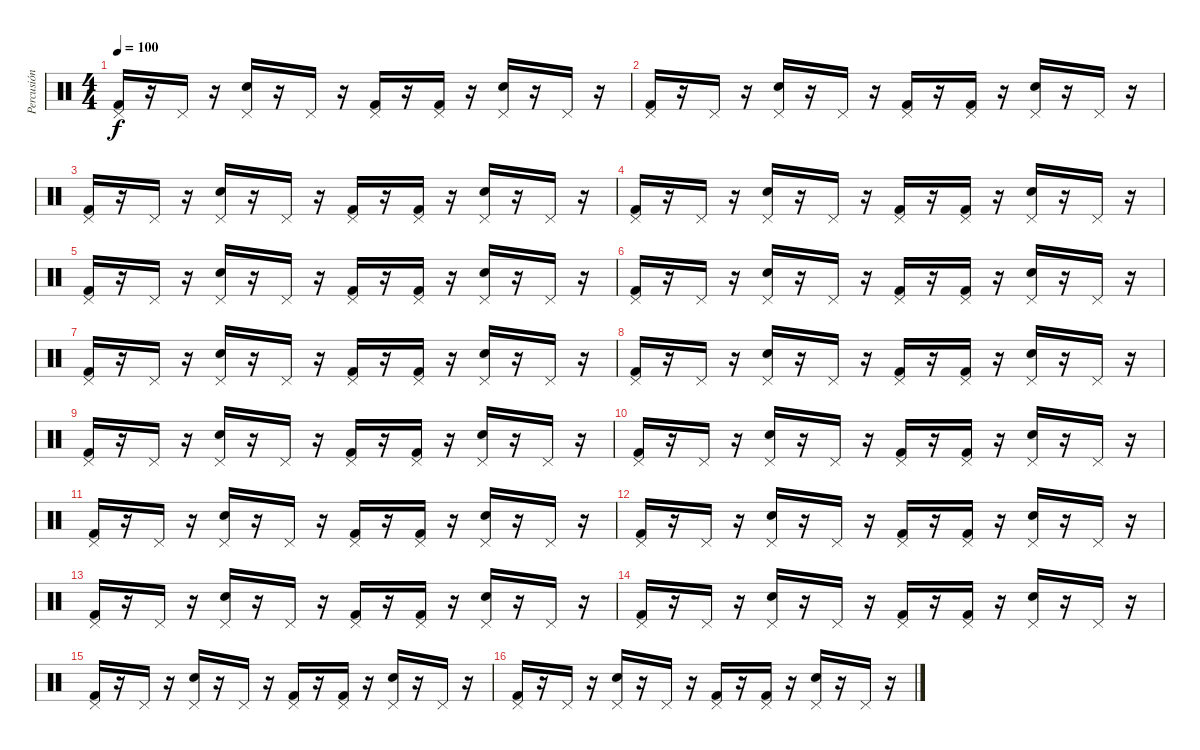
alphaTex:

\track ("Percusión" "Percusión") {instrument percussion}
\staff {score}
\articulation defaults
\ts (4 4)
\tempo 100
\clef neutral
\ks c
("Pedal Hi-Hat (hit)" "Kick (hit) 2").16{dy f} r.16 "Pedal Hi-Hat (hit)".16 r.16 ("Pedal Hi-Hat (hit)" "Snare (hit) 2").16 r.16 "Pedal Hi-Hat (hit)".16 r.16 ("Pedal Hi-Hat (hit)" "Kick (hit) 2").16 r.16 ("Pedal Hi-Hat (hit)" "Kick (hit) 2").16 r.16 ("Pedal Hi-Hat (hit)" "Snare (hit) 2").16 r.16 "Pedal Hi-Hat (hit)".16 r.16 |
("Pedal Hi-Hat (hit)" "Kick (hit) 2").16 r.16 "Pedal Hi-Hat (hit)".16 r.16 ("Pedal Hi-Hat (hit)" "Snare (hit) 2").16 r.16 "Pedal Hi-Hat (hit)".16 r.16 ("Pedal Hi-Hat (hit)" "Kick (hit) 2").16 r.16 ("Pedal Hi-Hat (hit)" "Kick (hit) 2").16 r.16 ("Pedal Hi-Hat (hit)" "Snare (hit) 2").16 r.16 "Pedal Hi-Hat (hit)".16 r.16 |
("Pedal Hi-Hat (hit)" "Kick (hit) 2").16 r.16 "Pedal Hi-Hat (hit)".16 r.16 ("Pedal Hi-Hat (hit)" "Snare (hit) 2").16 r.16 "Pedal Hi-Hat (hit)".16 r.16 ("Pedal Hi-Hat (hit)" "Kick (hit) 2").16 r.16 ("Pedal Hi-Hat (hit)" "Kick (hit) 2").16 r.16 ("Pedal Hi-Hat (hit)" "Snare (hit) 2").16 r.16 "Pedal Hi-Hat (hit)".16 r.16 |
("Pedal Hi-Hat (hit)" "Kick (hit) 2").16 r.16 "Pedal Hi-Hat (hit)".16 r.16 ("Pedal Hi-Hat (hit)" "Snare (hit) 2").16 r.16 "Pedal Hi-Hat (hit)".16 r.16 ("Pedal Hi-Hat (hit)" "Kick (hit) 2").16 r.16 ("Pedal Hi-Hat (hit)" "Kick (hit) 2").16 r.16 ("Pedal Hi-Hat (hit)" "Snare (hit) 2").16 r.16 "Pedal Hi-Hat (hit)".16 r.16 |
("Pedal Hi-Hat (hit)" "Kick (hit) 2").16 r.16 "Pedal Hi-Hat (hit)".16 r.16 ("Pedal Hi-Hat (hit)" "Snare (hit) 2").16 r.16 "Pedal Hi-Hat (hit)".16 r.16 ("Pedal Hi-Hat (hit)" "Kick (hit) 2").16 r.16 ("Pedal Hi-Hat (hit)" "Kick (hit) 2").16 r.16 ("Pedal Hi-Hat (hit)" "Snare (hit) 2").16 r.16 "Pedal Hi-Hat (hit)".16 r.16 |
("Pedal Hi-Hat (hit)" "Kick (hit) 2").16 r.16 "Pedal Hi-Hat (hit)".16 r.16 ("Pedal Hi-Hat (hit)" "Snare (hit) 2").16 r.16 "Pedal Hi-Hat (hit)".16 r.16 ("Pedal Hi-Hat (hit)" "Kick (hit) 2").16 r.16 ("Pedal Hi-Hat (hit)" "Kick (hit) 2").16 r.16 ("Pedal Hi-Hat (hit)" "Snare (hit) 2").16 r.16 "Pedal Hi-Hat (hit)".16 r.16 |
("Pedal Hi-Hat (hit)" "Kick (hit) 2").16 r.16 "Pedal Hi-Hat (hit)".16 r.16 ("Pedal Hi-Hat (hit)" "Snare (hit) 2").16 r.16 "Pedal Hi-Hat (hit)".16 r.16 ("Pedal Hi-Hat (hit)" "Kick (hit) 2").16 r.16 ("Pedal Hi-Hat (hit)" "Kick (hit) 2").16 r.16 ("Pedal Hi-Hat (hit)" "Snare (hit) 2").16 r.16 "Pedal Hi-Hat (hit)".16 r.16 |
("Pedal Hi-Hat (hit)" "Kick (hit) 2").16 r.16 "Pedal Hi-Hat (hit)".16 r.16 ("Pedal Hi-Hat (hit)" "Snare (hit) 2").16 r.16 "Pedal Hi-Hat (hit)".16 r.16 ("Pedal Hi-Hat (hit)" "Kick (hit) 2").16 r.16 ("Pedal Hi-Hat (hit)" "Kick (hit) 2").16 r.16 ("Pedal Hi-Hat (hit)" "Snare (hit) 2").16 r.16 "Pedal Hi-Hat (hit)".16 r.16 |
("Pedal Hi-Hat (hit)" "Kick (hit) 2").16 r.16 "Pedal Hi-Hat (hit)".16 r.16 ("Pedal Hi-Hat (hit)" "Snare (hit) 2").16 r.16 "Pedal Hi-Hat (hit)".16 r.16 ("Pedal Hi-Hat (hit)" "Kick (hit) 2").16 r.16 ("Pedal Hi-Hat (hit)" "Kick (hit) 2").16 r.16 ("Pedal Hi-Hat (hit)" "Snare (hit) 2").16 r.16 "Pedal Hi-Hat (hit)".16 r.16 |
("Pedal Hi-Hat (hit)" "Kick (hit) 2").16 r.16 "Pedal Hi-Hat (hit)".16 r.16 ("Pedal Hi-Hat (hit)" "Snare (hit) 2").16 r.16 "Pedal Hi-Hat (hit)".16 r.16 ("Pedal Hi-Hat (hit)" "Kick (hit) 2").16 r.16 ("Pedal Hi-Hat (hit)" "Kick (hit) 2").16 r.16 ("Pedal Hi-Hat (hit)" "Snare (hit) 2").16 r.16 "Pedal Hi-Hat (hit)".16 r.16 |
("Pedal Hi-Hat (hit)" "Kick (hit) 2").16 r.16 "Pedal Hi-Hat (hit)".16 r.16 ("Pedal Hi-Hat (hit)" "Snare (hit) 2").16 r.16 "Pedal Hi-Hat (hit)".16 r.16 ("Pedal Hi-Hat (hit)" "Kick (hit) 2").16 r.16 ("Pedal Hi-Hat (hit)" "Kick (hit) 2").16 r.16 ("Pedal Hi-Hat (hit)" "Snare (hit) 2").16 r.16 "Pedal Hi-Hat (hit)".16 r.16 |
("Pedal Hi-Hat (hit)" "Kick (hit) 2").16 r.16 "Pedal Hi-Hat (hit)".16 r.16 ("Pedal Hi-Hat (hit)" "Snare (hit) 2").16 r.16 "Pedal Hi-Hat (hit)".16 r.16 ("Pedal Hi-Hat (hit)" "Kick (hit) 2").16 r.16 ("Pedal Hi-Hat (hit)" "Kick (hit) 2").16 r.16 ("Pedal Hi-Hat (hit)" "Snare (hit) 2").16 r.16 "Pedal Hi-Hat (hit)".16 r.16 |
("Pedal Hi-Hat (hit)" "Kick (hit) 2").16 r.16 "Pedal Hi-Hat (hit)".16 r.16 ("Pedal Hi-Hat (hit)" "Snare (hit) 2").16 r.16 "Pedal Hi-Hat (hit)".16 r.16 ("Pedal Hi-Hat (hit)" "Kick (hit) 2").16 r.16 ("Pedal Hi-Hat (hit)" "Kick (hit) 2").16 r.16 ("Pedal Hi-Hat (hit)" "Snare (hit) 2").16 r.16 "Pedal Hi-Hat (hit)".16 r.16 |
("Pedal Hi-Hat (hit)" "Kick (hit) 2").16 r.16 "Pedal Hi-Hat (hit)".16 r.16 ("Pedal Hi-Hat (hit)" "Snare (hit) 2").16 r.16 "Pedal Hi-Hat (hit)".16 r.16 ("Pedal Hi-Hat (hit)" "Kick (hit) 2").16 r.16 ("Pedal Hi-Hat (hit)" "Kick (hit) 2").16 r.16 ("Pedal Hi-Hat (hit)" "Snare (hit) 2").16 r.16 "Pedal Hi-Hat (hit)".16 r.16 |
("Pedal Hi-Hat (hit)" "Kick (hit) 2").16 r.16 "Pedal Hi-Hat (hit)".16 r.16 ("Pedal Hi-Hat (hit)" "Snare (hit) 2").16 r.16 "Pedal Hi-Hat (hit)".16 r.16 ("Pedal Hi-Hat (hit)" "Kick (hit) 2").16 r.16 ("Pedal Hi-Hat (hit)" "Kick (hit) 2").16 r.16 ("Pedal Hi-Hat (hit)" "Snare (hit) 2").16 r.16 "Pedal Hi-Hat (hit)".16 r.16 |
("Pedal Hi-Hat (hit)" "Kick (hit) 2").16 r.16 "Pedal Hi-Hat (hit)".16 r.16 ("Pedal Hi-Hat (hit)" "Snare (hit) 2").16 r.16 "Pedal Hi-Hat (hit)".16 r.16 ("Pedal Hi-Hat (hit)" "Kick (hit) 2").16 r.16 ("Pedal Hi-Hat (hit)" "Kick (hit) 2").16 r.16 ("Pedal Hi-Hat (hit)" "Snare (hit) 2").16 r.16 "Pedal Hi-Hat (hit)".16 r.16
